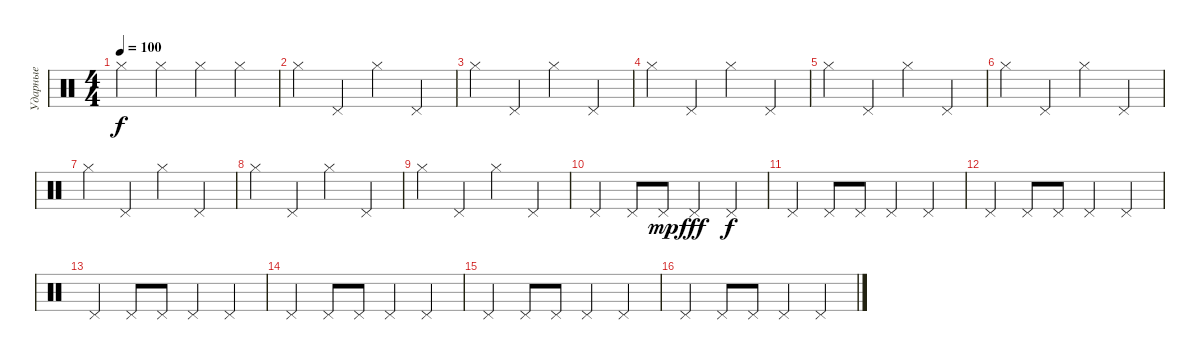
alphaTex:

\track ("Ударные" "Ударные") {instrument percussion}
\staff {score}
\articulation defaults
\ts (4 4)
\tempo 100
\clef neutral
\ks c "Hi-Hat (closed)".4{dy f} "Hi-Hat (closed)".4 "Hi-Hat (closed)".4 "Hi-Hat (closed)".4
|
"Hi-Hat (closed)".4 "Pedal Hi-Hat (hit)".4 "Hi-Hat (closed)".4 "Pedal Hi-Hat (hit)".4 |
"Hi-Hat (closed)".4 "Pedal Hi-Hat (hit)".4 "Hi-Hat (closed)".4 "Pedal Hi-Hat (hit)".4 |
"Hi-Hat (closed)".4 "Pedal Hi-Hat (hit)".4 "Hi-Hat (closed)".4 "Pedal Hi-Hat (hit)".4 |
"Hi-Hat (closed)".4 "Pedal Hi-Hat (hit)".4 "Hi-Hat (closed)".4 "Pedal Hi-Hat (hit)".4 |
"Hi-Hat (closed)".4 "Pedal Hi-Hat (hit)".4 "Hi-Hat (closed)".4 "Pedal Hi-Hat (hit)".4 |
"Hi-Hat (closed)".4 "Pedal Hi-Hat (hit)".4 "Hi-Hat (closed)".4 "Pedal Hi-Hat (hit)".4 |
"Hi-Hat (closed)".4 "Pedal Hi-Hat (hit)".4 "Hi-Hat (closed)".4 "Pedal Hi-Hat (hit)".4 |
"Hi-Hat (closed)".4 "Pedal Hi-Hat (hit)".4 "Hi-Hat (closed)".4 "Pedal Hi-Hat (hit)".4 |
"Pedal Hi-Hat (hit)".4 "Pedal Hi-Hat (hit)".8 "Pedal Hi-Hat (hit)".8{dy mp} "Pedal Hi-Hat (hit)".4{dy fff} "Pedal Hi-Hat (hit)".4{dy f} |
"Pedal Hi-Hat (hit)".4 "Pedal Hi-Hat (hit)".8 "Pedal Hi-Hat (hit)".8 "Pedal Hi-Hat (hit)".4 "Pedal Hi-Hat (hit)".4 |
"Pedal Hi-Hat (hit)".4 "Pedal Hi-Hat (hit)".8 "Pedal Hi-Hat (hit)".8 "Pedal Hi-Hat (hit)".4 "Pedal Hi-Hat (hit)".4 |
"Pedal Hi-Hat (hit)".4 "Pedal Hi-Hat (hit)".8 "Pedal Hi-Hat (hit)".8 "Pedal Hi-Hat (hit)".4 "Pedal Hi-Hat (hit)".4 |
"Pedal Hi-Hat (hit)".4 "Pedal Hi-Hat (hit)".8 "Pedal Hi-Hat (hit)".8 "Pedal Hi-Hat (hit)".4 "Pedal Hi-Hat (hit)".4 |
"Pedal Hi-Hat (hit)".4 "Pedal Hi-Hat (hit)".8 "Pedal Hi-Hat (hit)".8 "Pedal Hi-Hat (hit)".4 "Pedal Hi-Hat (hit)".4 |
"Pedal Hi-Hat (hit)".4 "Pedal Hi-Hat (hit)".8 "Pedal Hi-Hat (hit)".8 "Pedal Hi-Hat (hit)".4 "Pedal Hi-Hat (hit)".4
